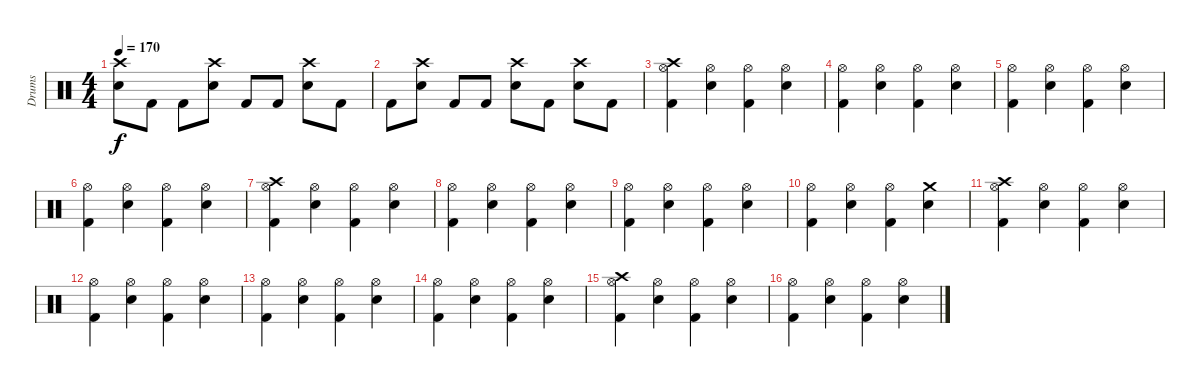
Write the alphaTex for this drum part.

\track ("Drums" "Drums") {instrument percussion}
\staff {score}
\articulation defaults
\ts (4 4)
\tempo 170
\clef neutral
\ks c
("Crash high (hit)" "Electric Snare (hit)").8{dy f} "Kick (hit) 2".8 "Kick (hit) 2".8 ("Crash high (hit)" "Electric Snare (hit)").8 "Kick (hit) 2".8 "Kick (hit) 2".8 ("Crash high (hit)" "Electric Snare (hit)").8 "Kick (hit) 2".8 |
"Kick (hit) 2".8 ("Crash high (hit)" "Electric Snare (hit)").8 "Kick (hit) 2".8 "Kick (hit) 2".8 ("Crash high (hit)" "Electric Snare (hit)").8 "Kick (hit) 2".8 ("Crash high (hit)" "Electric Snare (hit)").8 "Kick (hit) 2".8 |
("Crash high (hit)" "Hi-Hat (open)" "Kick (hit) 2").4 ("Hi-Hat (open)" "Electric Snare (hit)").4 ("Hi-Hat (open)" "Kick (hit) 2").4 ("Hi-Hat (open)" "Electric Snare (hit)").4 |
("Hi-Hat (open)" "Kick (hit) 2").4 ("Hi-Hat (open)" "Electric Snare (hit)").4 ("Hi-Hat (open)" "Kick (hit) 2").4 ("Hi-Hat (open)" "Electric Snare (hit)").4 |
("Hi-Hat (open)" "Kick (hit) 2").4 ("Hi-Hat (open)" "Electric Snare (hit)").4 ("Hi-Hat (open)" "Kick (hit) 2").4 ("Hi-Hat (open)" "Electric Snare (hit)").4 |
("Hi-Hat (open)" "Kick (hit) 2").4 ("Hi-Hat (open)" "Electric Snare (hit)").4 ("Hi-Hat (open)" "Kick (hit) 2").4 ("Hi-Hat (open)" "Electric Snare (hit)").4 |
("Crash high (hit)" "Hi-Hat (open)" "Kick (hit) 2").4 ("Hi-Hat (open)" "Electric Snare (hit)").4 ("Hi-Hat (open)" "Kick (hit) 2").4 ("Hi-Hat (open)" "Electric Snare (hit)").4 |
("Hi-Hat (open)" "Kick (hit) 2").4 ("Hi-Hat (open)" "Electric Snare (hit)").4 ("Hi-Hat (open)" "Kick (hit) 2").4 ("Hi-Hat (open)" "Electric Snare (hit)").4 |
("Hi-Hat (open)" "Kick (hit) 2").4 ("Hi-Hat (open)" "Electric Snare (hit)").4 ("Hi-Hat (open)" "Kick (hit) 2").4 ("Hi-Hat (open)" "Electric Snare (hit)").4 |
("Hi-Hat (open)" "Kick (hit) 2").4 ("Hi-Hat (open)" "Electric Snare (hit)").4 ("Hi-Hat (open)" "Kick (hit) 2").4 ("Crash medium (hit)" "Electric Snare (hit)").4 |
("Crash high (hit)" "Hi-Hat (open)" "Kick (hit) 2").4 ("Hi-Hat (open)" "Electric Snare (hit)").4 ("Hi-Hat (open)" "Kick (hit) 2").4 ("Hi-Hat (open)" "Electric Snare (hit)").4 |
("Hi-Hat (open)" "Kick (hit) 2").4 ("Hi-Hat (open)" "Electric Snare (hit)").4 ("Hi-Hat (open)" "Kick (hit) 2").4 ("Hi-Hat (open)" "Electric Snare (hit)").4 |
("Hi-Hat (open)" "Kick (hit) 2").4 ("Hi-Hat (open)" "Electric Snare (hit)").4 ("Hi-Hat (open)" "Kick (hit) 2").4 ("Hi-Hat (open)" "Electric Snare (hit)").4 |
("Hi-Hat (open)" "Kick (hit) 2").4 ("Hi-Hat (open)" "Electric Snare (hit)").4 ("Hi-Hat (open)" "Kick (hit) 2").4 ("Hi-Hat (open)" "Electric Snare (hit)").4 |
("Crash high (hit)" "Hi-Hat (open)" "Kick (hit) 2").4 ("Hi-Hat (open)" "Electric Snare (hit)").4 ("Hi-Hat (open)" "Kick (hit) 2").4 ("Hi-Hat (open)" "Electric Snare (hit)").4 |
("Hi-Hat (open)" "Kick (hit) 2").4 ("Hi-Hat (open)" "Electric Snare (hit)").4 ("Hi-Hat (open)" "Kick (hit) 2").4 ("Hi-Hat (open)" "Electric Snare (hit)").4
